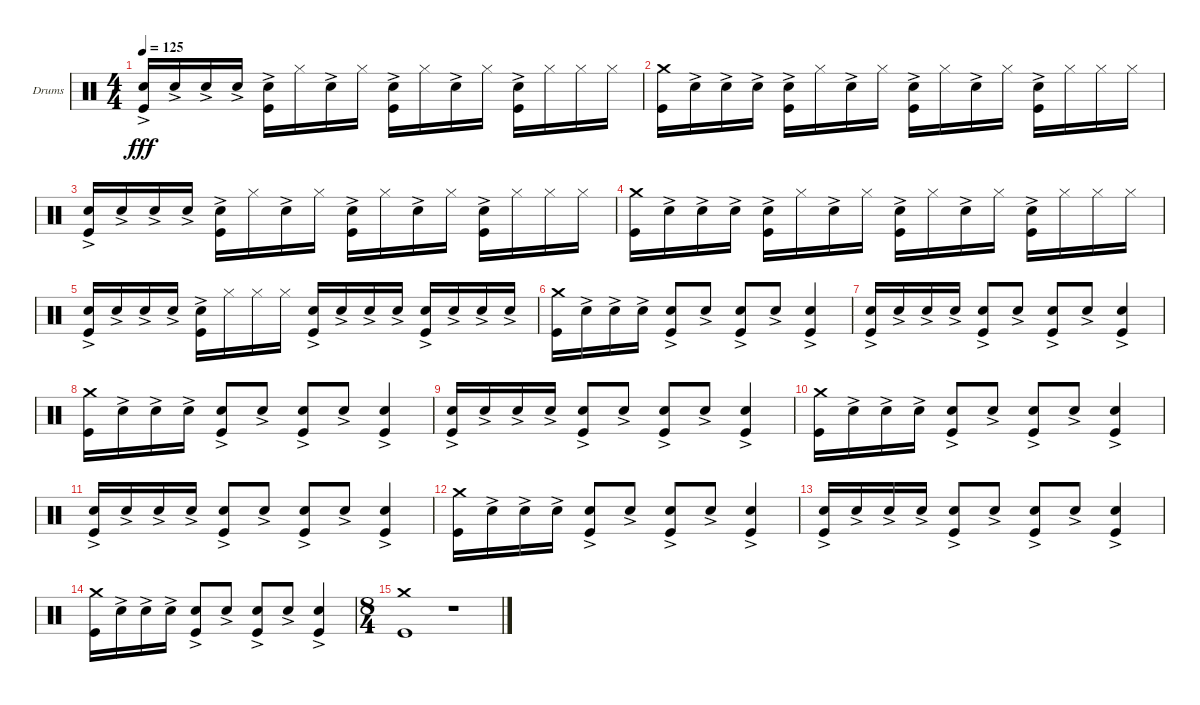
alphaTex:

\bracketExtendMode groupsimilarinstruments
\firstSystemTrackNameOrientation horizontal
\otherSystemsTrackNameOrientation horizontal
\track ("Ударники Григорий Гурьянов" "Drums") {instrument percussion}
\staff {score}
\articulation defaults
\ts (4 4)
\tempo 125
\clef neutral
\ks c
("Snare (hit) 2"{ac} "Kick (hit)").16{dy fff} "Snare (hit) 2"{ac}.16 "Snare (hit) 2"{ac}.16 "Snare (hit) 2"{ac}.16 ("Snare (hit) 2"{ac} "Kick (hit)").16 "Hi-Hat (closed)".16 "Snare (hit) 2"{ac}.16 "Hi-Hat (closed)".16 ("Snare (hit) 2"{ac} "Kick (hit)").16 "Hi-Hat (closed)".16 "Snare (hit) 2"{ac}.16 "Hi-Hat (closed)".16 ("Snare (hit) 2"{ac} "Kick (hit)").16 "Hi-Hat (closed)".16 "Hi-Hat (closed)".16 "Hi-Hat (closed)".16 |
("Crash medium (hit)" "Kick (hit)").16 "Snare (hit) 2"{ac}.16 "Snare (hit) 2"{ac}.16 "Snare (hit) 2"{ac}.16 ("Snare (hit) 2"{ac} "Kick (hit)").16 "Hi-Hat (closed)".16 "Snare (hit) 2"{ac}.16 "Hi-Hat (closed)".16 ("Snare (hit) 2"{ac} "Kick (hit)").16 "Hi-Hat (closed)".16 "Snare (hit) 2"{ac}.16 "Hi-Hat (closed)".16 ("Snare (hit) 2"{ac} "Kick (hit)").16 "Hi-Hat (closed)".16 "Hi-Hat (closed)".16 "Hi-Hat (closed)".16 |
("Snare (hit) 2"{ac} "Kick (hit)").16 "Snare (hit) 2"{ac}.16 "Snare (hit) 2"{ac}.16 "Snare (hit) 2"{ac}.16 ("Snare (hit) 2"{ac} "Kick (hit)").16 "Hi-Hat (closed)".16 "Snare (hit) 2"{ac}.16 "Hi-Hat (closed)".16 ("Snare (hit) 2"{ac} "Kick (hit)").16 "Hi-Hat (closed)".16 "Snare (hit) 2"{ac}.16 "Hi-Hat (closed)".16 ("Snare (hit) 2"{ac} "Kick (hit)").16 "Hi-Hat (closed)".16 "Hi-Hat (closed)".16 "Hi-Hat (closed)".16 |
("Crash medium (hit)" "Kick (hit)").16 "Snare (hit) 2"{ac}.16 "Snare (hit) 2"{ac}.16 "Snare (hit) 2"{ac}.16 ("Snare (hit) 2"{ac} "Kick (hit)").16 "Hi-Hat (closed)".16 "Snare (hit) 2"{ac}.16 "Hi-Hat (closed)".16 ("Snare (hit) 2"{ac} "Kick (hit)").16 "Hi-Hat (closed)".16 "Snare (hit) 2"{ac}.16 "Hi-Hat (closed)".16 ("Snare (hit) 2"{ac} "Kick (hit)").16 "Hi-Hat (closed)".16 "Hi-Hat (closed)".16 "Hi-Hat (closed)".16 |
("Snare (hit) 2"{ac} "Kick (hit)").16 "Snare (hit) 2"{ac}.16 "Snare (hit) 2"{ac}.16 "Snare (hit) 2"{ac}.16 ("Snare (hit) 2"{ac} "Kick (hit)").16 "Hi-Hat (closed)".16 "Hi-Hat (closed)".16 "Hi-Hat (closed)".16 ("Snare (hit) 2"{ac} "Kick (hit)").16 "Snare (hit) 2"{ac}.16 "Snare (hit) 2"{ac}.16 "Snare (hit) 2"{ac}.16 ("Snare (hit) 2"{ac} "Kick (hit)").16 "Snare (hit) 2"{ac}.16 "Snare (hit) 2"{ac}.16 "Snare (hit) 2"{ac}.16 |
("Crash medium (hit)" "Kick (hit)").16 "Snare (hit) 2"{ac}.16 "Snare (hit) 2"{ac}.16 "Snare (hit) 2"{ac}.16 ("Snare (hit) 2"{ac} "Kick (hit)").8 "Snare (hit) 2"{ac}.8 ("Snare (hit) 2"{ac} "Kick (hit)").8 "Snare (hit) 2"{ac}.8 ("Snare (hit) 2"{ac} "Kick (hit)").4 |
("Snare (hit) 2"{ac} "Kick (hit)").16 "Snare (hit) 2"{ac}.16 "Snare (hit) 2"{ac}.16 "Snare (hit) 2"{ac}.16 ("Snare (hit) 2"{ac} "Kick (hit)").8 "Snare (hit) 2"{ac}.8 ("Snare (hit) 2"{ac} "Kick (hit)").8 "Snare (hit) 2"{ac}.8 ("Snare (hit) 2"{ac} "Kick (hit)").4 |
("Crash medium (hit)" "Kick (hit)").16 "Snare (hit) 2"{ac}.16 "Snare (hit) 2"{ac}.16 "Snare (hit) 2"{ac}.16 ("Snare (hit) 2"{ac} "Kick (hit)").8 "Snare (hit) 2"{ac}.8 ("Snare (hit) 2"{ac} "Kick (hit)").8 "Snare (hit) 2"{ac}.8 ("Snare (hit) 2"{ac} "Kick (hit)").4 |
("Snare (hit) 2"{ac} "Kick (hit)").16 "Snare (hit) 2"{ac}.16 "Snare (hit) 2"{ac}.16 "Snare (hit) 2"{ac}.16 ("Snare (hit) 2"{ac} "Kick (hit)").8 "Snare (hit) 2"{ac}.8 ("Snare (hit) 2"{ac} "Kick (hit)").8 "Snare (hit) 2"{ac}.8 ("Snare (hit) 2"{ac} "Kick (hit)").4 |
("Crash medium (hit)" "Kick (hit)").16 "Snare (hit) 2"{ac}.16 "Snare (hit) 2"{ac}.16 "Snare (hit) 2"{ac}.16 ("Snare (hit) 2"{ac} "Kick (hit)").8 "Snare (hit) 2"{ac}.8 ("Snare (hit) 2"{ac} "Kick (hit)").8 "Snare (hit) 2"{ac}.8 ("Snare (hit) 2"{ac} "Kick (hit)").4 |
("Snare (hit) 2"{ac} "Kick (hit)").16 "Snare (hit) 2"{ac}.16 "Snare (hit) 2"{ac}.16 "Snare (hit) 2"{ac}.16 ("Snare (hit) 2"{ac} "Kick (hit)").8 "Snare (hit) 2"{ac}.8 ("Snare (hit) 2"{ac} "Kick (hit)").8 "Snare (hit) 2"{ac}.8 ("Snare (hit) 2"{ac} "Kick (hit)").4 |
("Crash medium (hit)" "Kick (hit)").16 "Snare (hit) 2"{ac}.16 "Snare (hit) 2"{ac}.16 "Snare (hit) 2"{ac}.16 ("Snare (hit) 2"{ac} "Kick (hit)").8 "Snare (hit) 2"{ac}.8 ("Snare (hit) 2"{ac} "Kick (hit)").8 "Snare (hit) 2"{ac}.8 ("Snare (hit) 2"{ac} "Kick (hit)").4 |
("Snare (hit) 2"{ac} "Kick (hit)").16 "Snare (hit) 2"{ac}.16 "Snare (hit) 2"{ac}.16 "Snare (hit) 2"{ac}.16 ("Snare (hit) 2"{ac} "Kick (hit)").8 "Snare (hit) 2"{ac}.8 ("Snare (hit) 2"{ac} "Kick (hit)").8 "Snare (hit) 2"{ac}.8 ("Snare (hit) 2"{ac} "Kick (hit)").4 |
("Crash medium (hit)" "Kick (hit)").16 "Snare (hit) 2"{ac}.16 "Snare (hit) 2"{ac}.16 "Snare (hit) 2"{ac}.16 ("Snare (hit) 2"{ac} "Kick (hit)").8 "Snare (hit) 2"{ac}.8 ("Snare (hit) 2"{ac} "Kick (hit)").8 "Snare (hit) 2"{ac}.8 ("Snare (hit) 2"{ac} "Kick (hit)").4 |
\ts (8 4)
\beaming (8 4 4 4 4)
("Crash medium (hit)" "Kick (hit)").1 r.1
